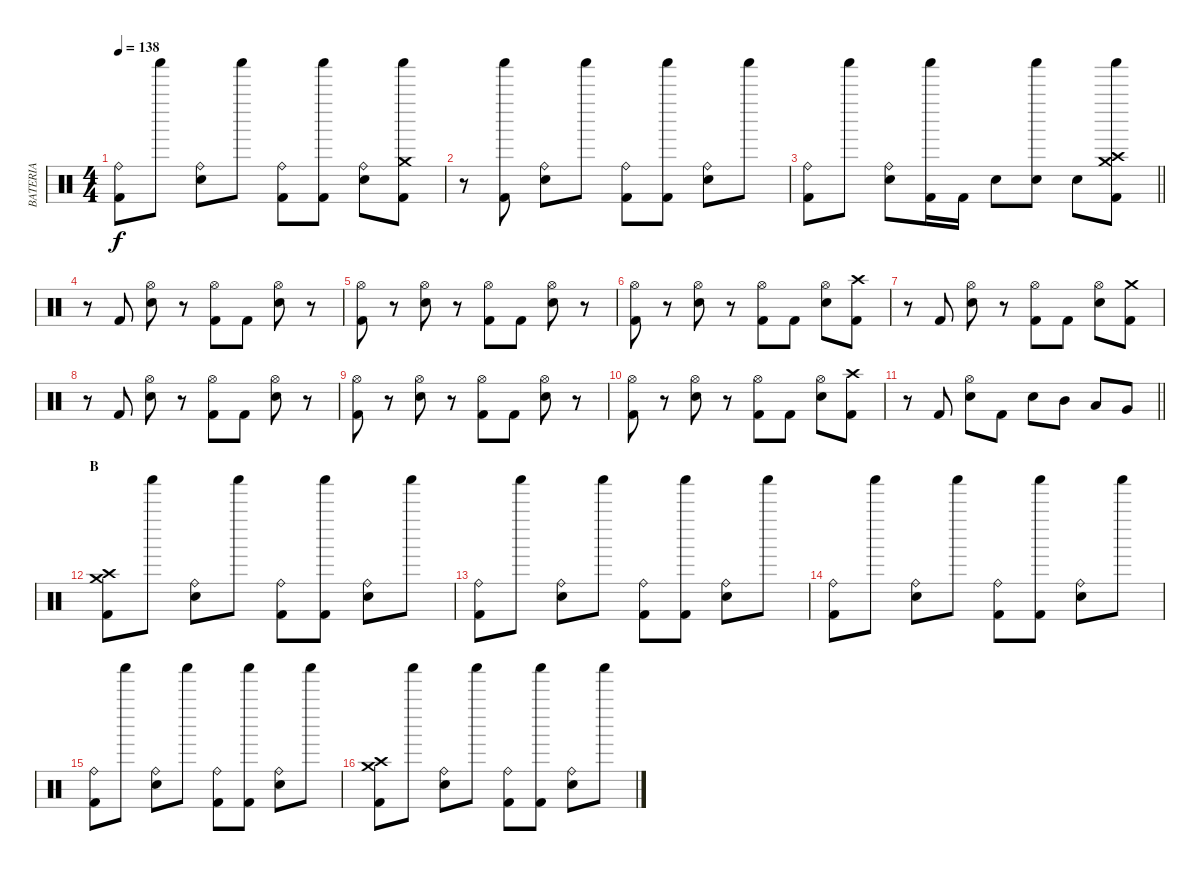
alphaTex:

\track ("BATERIA" "BATERIA") {instrument percussion}
\staff {score}
\articulation defaults
\ts (4 4)
\tempo 138
\clef neutral
\ks c
("Kick (hit) 2" "Ride (bell)").8{dy f} "Shaker (hit)".8 ("Electric Snare (hit)" "Ride (bell)").8 "Shaker (hit)".8 ("Kick (hit) 2" "Ride (bell)").8 ("Kick (hit) 2" "Shaker (hit)").8 ("Electric Snare (hit)" "Ride (bell)").8 ("Kick (hit) 2" "Shaker (hit)" "Crash medium (hit)").8 |
r.8 ("Kick (hit) 2" "Shaker (hit)").8 ("Electric Snare (hit)" "Ride (bell)").8 "Shaker (hit)".8 ("Kick (hit) 2" "Ride (bell)").8 ("Kick (hit) 2" "Shaker (hit)").8 ("Electric Snare (hit)" "Ride (bell)").8 "Shaker (hit)".8 |
\barLineRight lightlight
("Kick (hit) 2" "Ride (bell)").8 "Shaker (hit)".8 ("Electric Snare (hit)" "Ride (bell)").8 ("Kick (hit) 2" "Shaker (hit)").16 "Kick (hit) 2".16 "Electric Snare (hit)".8 ("Electric Snare (hit)" "Shaker (hit)").8 "Electric Snare (hit)".8 ("Kick (hit) 2" "Shaker (hit)" "Crash medium (hit)" "Crash high (hit)").8 |
r.8 "Kick (hit) 2".8 ("Electric Snare (hit)" "Hi-Hat (open)").8 r.8 ("Kick (hit) 2" "Hi-Hat (open)").8 "Kick (hit) 2".8 ("Electric Snare (hit)" "Hi-Hat (open)").8 r.8 |
("Kick (hit) 2" "Hi-Hat (open)").8 r.8 ("Electric Snare (hit)" "Hi-Hat (open)").8 r.8 ("Kick (hit) 2" "Hi-Hat (open)").8 "Kick (hit) 2".8 ("Electric Snare (hit)" "Hi-Hat (open)").8 r.8 |
("Kick (hit) 2" "Hi-Hat (open)").8 r.8 ("Electric Snare (hit)" "Hi-Hat (open)").8 r.8 ("Kick (hit) 2" "Hi-Hat (open)").8 "Kick (hit) 2".8 ("Electric Snare (hit)" "Hi-Hat (open)").8 ("Kick (hit) 2" "Crash high (hit)").8 |
r.8 "Kick (hit) 2".8 ("Electric Snare (hit)" "Hi-Hat (open)").8 r.8 ("Kick (hit) 2" "Hi-Hat (open)").8 "Kick (hit) 2".8 ("Electric Snare (hit)" "Hi-Hat (open)").8 ("Kick (hit) 2" "Crash medium (hit)").8 |
r.8 "Kick (hit) 2".8 ("Electric Snare (hit)" "Hi-Hat (open)").8 r.8 ("Kick (hit) 2" "Hi-Hat (open)").8 "Kick (hit) 2".8 ("Electric Snare (hit)" "Hi-Hat (open)").8 r.8 |
("Kick (hit) 2" "Hi-Hat (open)").8 r.8 ("Electric Snare (hit)" "Hi-Hat (open)").8 r.8 ("Kick (hit) 2" "Hi-Hat (open)").8 "Kick (hit) 2".8 ("Electric Snare (hit)" "Hi-Hat (open)").8 r.8 |
("Kick (hit) 2" "Hi-Hat (open)").8 r.8 ("Electric Snare (hit)" "Hi-Hat (open)").8 r.8 ("Kick (hit) 2" "Hi-Hat (open)").8 "Kick (hit) 2".8 ("Electric Snare (hit)" "Hi-Hat (open)").8 ("Kick (hit) 2" "Crash high (hit)").8 |
\barLineRight lightlight
r.8 "Kick (hit) 2".8 ("Electric Snare (hit)" "Hi-Hat (open)").8 "Kick (hit) 2".8 "Electric Snare (hit)".8 "Mid Tom (hit)".8 "Low Tom (hit)".8 "Very Low Tom (hit)".8 |
\section ("" "B")
("Kick (hit) 2" "Crash medium (hit)" "Crash high (hit)").8 "Shaker (hit)".8 ("Electric Snare (hit)" "Ride (bell)").8 "Shaker (hit)".8 ("Kick (hit) 2" "Ride (bell)").8 ("Kick (hit) 2" "Shaker (hit)").8 ("Electric Snare (hit)" "Ride (bell)").8 "Shaker (hit)".8 |
("Kick (hit) 2" "Ride (bell)").8 "Shaker (hit)".8 ("Electric Snare (hit)" "Ride (bell)").8 "Shaker (hit)".8 ("Kick (hit) 2" "Ride (bell)").8 ("Kick (hit) 2" "Shaker (hit)").8 ("Electric Snare (hit)" "Ride (bell)").8 "Shaker (hit)".8 |
("Kick (hit) 2" "Ride (bell)").8 "Shaker (hit)".8 ("Electric Snare (hit)" "Ride (bell)").8 "Shaker (hit)".8 ("Kick (hit) 2" "Ride (bell)").8 ("Kick (hit) 2" "Shaker (hit)").8 ("Electric Snare (hit)" "Ride (bell)").8 "Shaker (hit)".8 |
("Kick (hit) 2" "Ride (bell)").8 "Shaker (hit)".8 ("Electric Snare (hit)" "Ride (bell)").8 "Shaker (hit)".8 ("Kick (hit) 2" "Ride (bell)").8 ("Kick (hit) 2" "Shaker (hit)").8 ("Electric Snare (hit)" "Ride (bell)").8 "Shaker (hit)".8 |
("Kick (hit) 2" "Crash medium (hit)" "Crash high (hit)").8 "Shaker (hit)".8 ("Electric Snare (hit)" "Ride (bell)").8 "Shaker (hit)".8 ("Kick (hit) 2" "Ride (bell)").8 ("Kick (hit) 2" "Shaker (hit)").8 ("Electric Snare (hit)" "Ride (bell)").8 "Shaker (hit)".8
